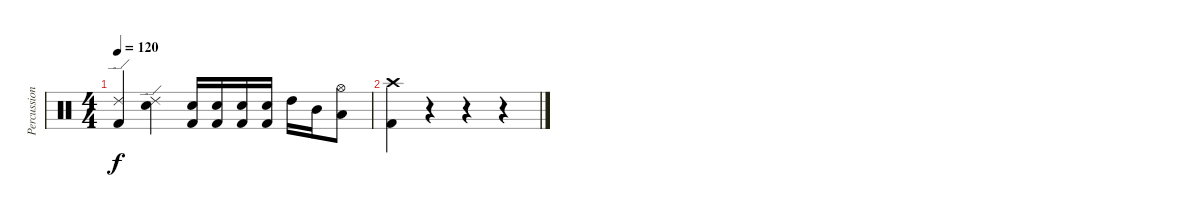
\track ("Percussion" "Percussion") {instrument percussion}
\staff {score}
\articulation defaults
\ts (4 4)
\tempo 120
\clef neutral
\ks c
("Ride (edge) 2" "Kick (hit) 2").4{dy f} ("Ride (edge) 2" "Electric Snare (hit)").4 ("Kick (hit) 2" "Electric Snare (hit)").16 ("Kick (hit) 2" "Electric Snare (hit)").16 ("Kick (hit) 2" "Electric Snare (hit)").16 ("Kick (hit) 2" "Electric Snare (hit)").16 "High Tom (hit)".16 "Mid Tom (hit)".16 ("Hi-Hat (open)" "Low Tom (hit)").8 |
("Kick (hit) 2" "Crash high (hit)").4 r.4 r.4 r.4
